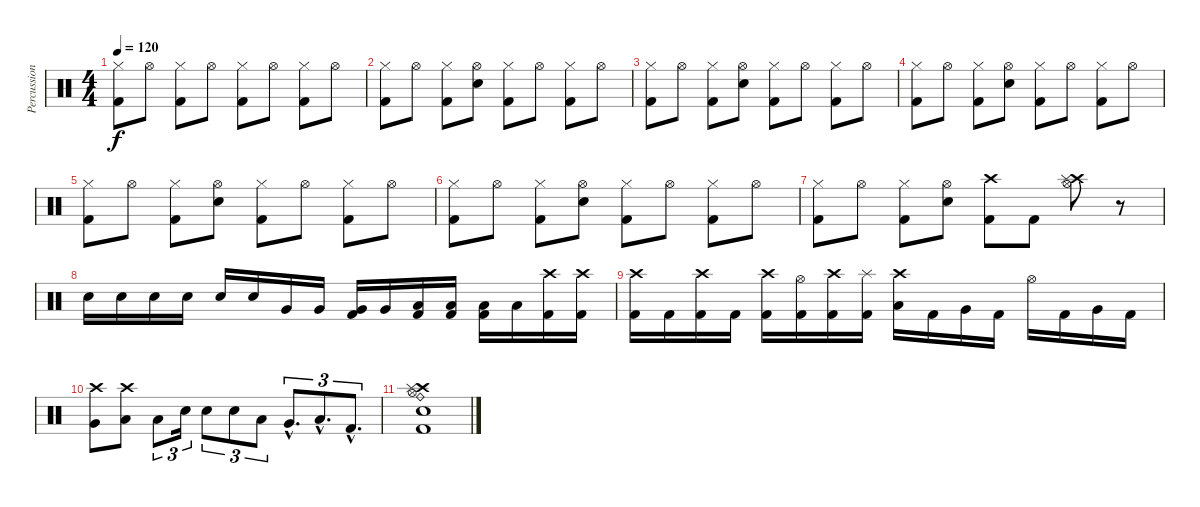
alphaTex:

\track ("Percussions" "Percussion") {instrument percussion}
\staff {score}
\articulation defaults
\ts (4 4)
\tempo 120
\clef neutral
\ks c
("Kick (hit) 2" "Hi-Hat (closed)").8{dy f} "Hi-Hat (open)".8 ("Kick (hit) 2" "Hi-Hat (closed)").8 "Hi-Hat (open)".8 ("Kick (hit) 2" "Hi-Hat (closed)").8 "Hi-Hat (open)".8 ("Kick (hit) 2" "Hi-Hat (closed)").8 "Hi-Hat (open)".8 |
("Kick (hit) 2" "Hi-Hat (closed)").8 "Hi-Hat (open)".8 ("Kick (hit) 2" "Hi-Hat (closed)").8 ("Hi-Hat (open)" "Snare (hit) 2").8 ("Kick (hit) 2" "Hi-Hat (closed)").8 "Hi-Hat (open)".8 ("Kick (hit) 2" "Hi-Hat (closed)").8 "Hi-Hat (open)".8 |
("Kick (hit) 2" "Hi-Hat (closed)").8 "Hi-Hat (open)".8 ("Kick (hit) 2" "Hi-Hat (closed)").8 ("Hi-Hat (open)" "Snare (hit) 2").8 ("Kick (hit) 2" "Hi-Hat (closed)").8 "Hi-Hat (open)".8 ("Kick (hit) 2" "Hi-Hat (closed)").8 "Hi-Hat (open)".8 |
("Kick (hit) 2" "Hi-Hat (closed)").8 "Hi-Hat (open)".8 ("Kick (hit) 2" "Hi-Hat (closed)").8 ("Hi-Hat (open)" "Snare (hit) 2").8 ("Kick (hit) 2" "Hi-Hat (closed)").8 "Hi-Hat (open)".8 ("Kick (hit) 2" "Hi-Hat (closed)").8 "Hi-Hat (open)".8 |
("Kick (hit) 2" "Hi-Hat (closed)").8 "Hi-Hat (open)".8 ("Kick (hit) 2" "Hi-Hat (closed)").8 ("Hi-Hat (open)" "Snare (hit) 2").8 ("Kick (hit) 2" "Hi-Hat (closed)").8 "Hi-Hat (open)".8 ("Kick (hit) 2" "Hi-Hat (closed)").8 "Hi-Hat (open)".8 |
("Kick (hit) 2" "Hi-Hat (closed)").8 "Hi-Hat (open)".8 ("Kick (hit) 2" "Hi-Hat (closed)").8 ("Hi-Hat (open)" "Snare (hit) 2").8 ("Kick (hit) 2" "Hi-Hat (closed)").8 "Hi-Hat (open)".8 ("Kick (hit) 2" "Hi-Hat (closed)").8 "Hi-Hat (open)".8 |
("Kick (hit) 2" "Hi-Hat (closed)").8 "Hi-Hat (open)".8 ("Kick (hit) 2" "Hi-Hat (closed)").8 ("Hi-Hat (open)" "Snare (hit) 2").8 ("Kick (hit) 2" "Crash high (hit)").8 "Kick (hit) 2".8 ("Crash high (hit)" "Hi-Hat (open)" "Splash (hit)").8 r.8 |
"Snare (hit) 2".16 "Snare (hit) 2".16 "Snare (hit) 2".16 "Snare (hit) 2".16 "Snare (hit) 2".16 "Snare (hit) 2".16 "Very Low Tom (hit)".16 "Very Low Tom (hit)".16 ("Very Low Tom (hit)" "Kick (hit) 2").16 "Very Low Tom (hit)".16 ("Low Floor Tom (hit)" "Kick (hit) 2").16 ("Low Floor Tom (hit)" "Kick (hit) 2").16 ("Low Floor Tom (hit)" "Kick (hit) 2").16 "Low Floor Tom (hit)".16 ("Crash high (hit)" "Kick (hit) 2").16 ("Crash high (hit)" "Kick (hit) 2").16 |
("Crash high (hit)" "Kick (hit) 2").16 "Kick (hit) 2".16 ("Crash high (hit)" "Kick (hit) 2").16 "Kick (hit) 2".16 ("Crash high (hit)" "Kick (hit) 2").16 ("Hi-Hat (open)" "Kick (hit) 2").16 ("Crash high (hit)" "Kick (hit) 2").16 ("Splash (hit)" "Kick (hit) 2").16 ("Crash high (hit)" "Low Floor Tom (hit)").16 "Kick (hit) 2".16 "Very Low Tom (hit)".16 "Kick (hit) 2".16 "Hi-Hat (open)".16 "Kick (hit) 2".16 "Very Low Tom (hit)".16 "Kick (hit) 2".16 |
("Crash high (hit)" "Very Low Tom (hit)").8 ("Crash high (hit)" "Low Tom (hit)").8 "Low Tom (hit)".8{tu (3 2)} "Snare (hit) 2".16{tu (3 2)} "Snare (hit) 2".8{tu (3 2)} "Snare (hit) 2".8{tu (3 2)} "Low Tom (hit)".8{tu (3 2)} "Very Low Tom (hit)"{hac}.8{d tu (3 2)} "Low Floor Tom (hit)"{hac}.8{d tu (3 2)} "Kick (hit) 2"{hac}.8{d tu (3 2)} |
("Ride (bell)" "Crash high (hit)" "Splash (hit)" "Hi-Hat (open)" "Snare (hit) 2" "Kick (hit) 2").1
